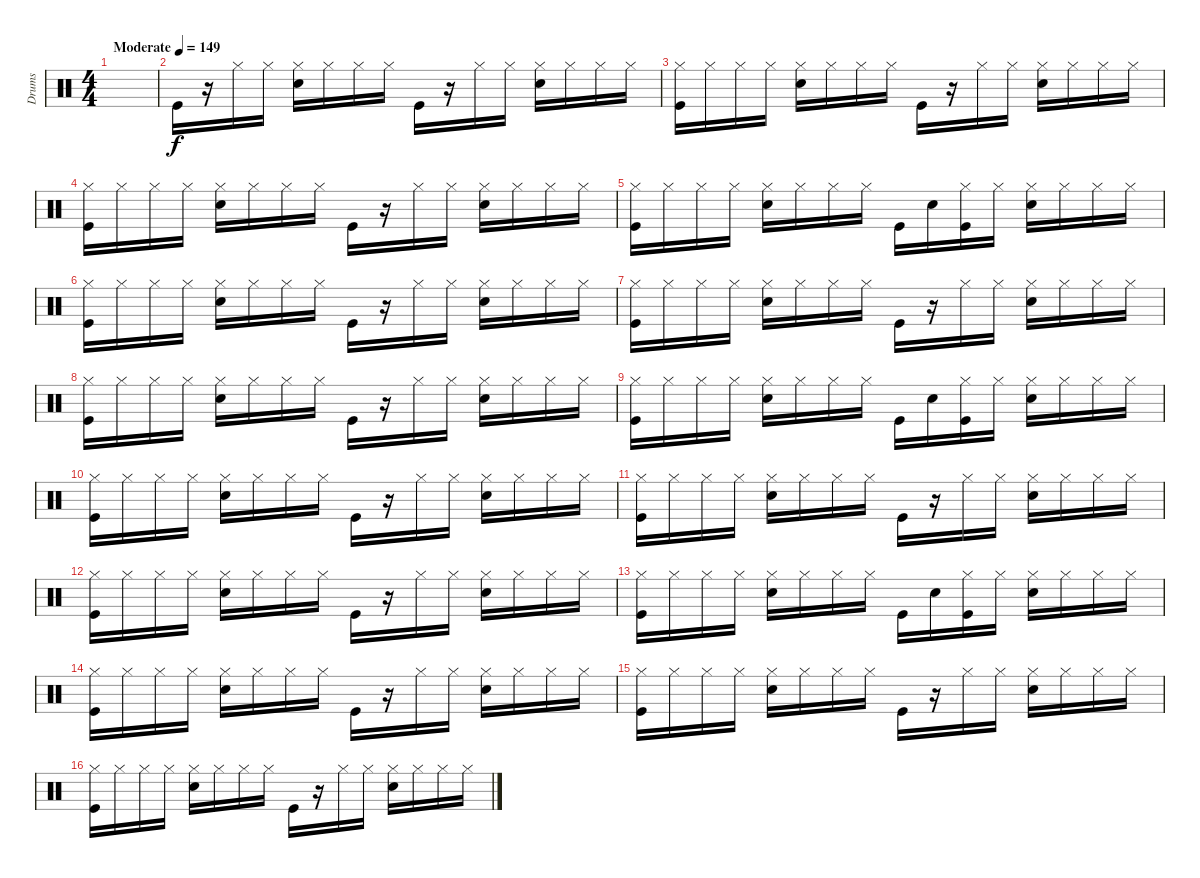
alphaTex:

\track ("Drums" "Drums") {instrument percussion}
\staff {score}
\articulation defaults
\ts (4 4)
\tempo (149 "Moderate")
\clef neutral
\ks c
|
"Kick (hit)".16 r.16 "Hi-Hat (closed)".16 "Hi-Hat (closed)".16 ("Hi-Hat (closed)" "Snare (hit) 2").16 "Hi-Hat (closed)".16 "Hi-Hat (closed)".16 "Hi-Hat (closed)".16 "Kick (hit)".16 r.16 "Hi-Hat (closed)".16 "Hi-Hat (closed)".16 ("Hi-Hat (closed)" "Snare (hit) 2").16 "Hi-Hat (closed)".16 "Hi-Hat (closed)".16 "Hi-Hat (closed)".16 |
("Hi-Hat (closed)" "Kick (hit)").16 "Hi-Hat (closed)".16 "Hi-Hat (closed)".16 "Hi-Hat (closed)".16 ("Hi-Hat (closed)" "Snare (hit) 2").16 "Hi-Hat (closed)".16 "Hi-Hat (closed)".16 "Hi-Hat (closed)".16 "Kick (hit)".16 r.16 "Hi-Hat (closed)".16 "Hi-Hat (closed)".16 ("Hi-Hat (closed)" "Snare (hit) 2").16 "Hi-Hat (closed)".16 "Hi-Hat (closed)".16 "Hi-Hat (closed)".16 |
("Hi-Hat (closed)" "Kick (hit)").16 "Hi-Hat (closed)".16 "Hi-Hat (closed)".16 "Hi-Hat (closed)".16 ("Hi-Hat (closed)" "Snare (hit) 2").16 "Hi-Hat (closed)".16 "Hi-Hat (closed)".16 "Hi-Hat (closed)".16 "Kick (hit)".16 r.16 "Hi-Hat (closed)".16 "Hi-Hat (closed)".16 ("Hi-Hat (closed)" "Snare (hit) 2").16 "Hi-Hat (closed)".16 "Hi-Hat (closed)".16 "Hi-Hat (closed)".16 |
("Hi-Hat (closed)" "Kick (hit)").16 "Hi-Hat (closed)".16 "Hi-Hat (closed)".16 "Hi-Hat (closed)".16 ("Hi-Hat (closed)" "Snare (hit) 2").16 "Hi-Hat (closed)".16 "Hi-Hat (closed)".16 "Hi-Hat (closed)".16 "Kick (hit)".16 "Snare (hit) 2".16 ("Hi-Hat (closed)" "Kick (hit)").16 "Hi-Hat (closed)".16 ("Hi-Hat (closed)" "Snare (hit) 2").16 "Hi-Hat (closed)".16 "Hi-Hat (closed)".16 "Hi-Hat (closed)".16 |
("Hi-Hat (closed)" "Kick (hit)").16 "Hi-Hat (closed)".16 "Hi-Hat (closed)".16 "Hi-Hat (closed)".16 ("Hi-Hat (closed)" "Snare (hit) 2").16 "Hi-Hat (closed)".16 "Hi-Hat (closed)".16 "Hi-Hat (closed)".16 "Kick (hit)".16 r.16 "Hi-Hat (closed)".16 "Hi-Hat (closed)".16 ("Hi-Hat (closed)" "Snare (hit) 2").16 "Hi-Hat (closed)".16 "Hi-Hat (closed)".16 "Hi-Hat (closed)".16 |
("Hi-Hat (closed)" "Kick (hit)").16 "Hi-Hat (closed)".16 "Hi-Hat (closed)".16 "Hi-Hat (closed)".16 ("Hi-Hat (closed)" "Snare (hit) 2").16 "Hi-Hat (closed)".16 "Hi-Hat (closed)".16 "Hi-Hat (closed)".16 "Kick (hit)".16 r.16 "Hi-Hat (closed)".16 "Hi-Hat (closed)".16 ("Hi-Hat (closed)" "Snare (hit) 2").16 "Hi-Hat (closed)".16 "Hi-Hat (closed)".16 "Hi-Hat (closed)".16 |
("Hi-Hat (closed)" "Kick (hit)").16 "Hi-Hat (closed)".16 "Hi-Hat (closed)".16 "Hi-Hat (closed)".16 ("Hi-Hat (closed)" "Snare (hit) 2").16 "Hi-Hat (closed)".16 "Hi-Hat (closed)".16 "Hi-Hat (closed)".16 "Kick (hit)".16 r.16 "Hi-Hat (closed)".16 "Hi-Hat (closed)".16 ("Hi-Hat (closed)" "Snare (hit) 2").16 "Hi-Hat (closed)".16 "Hi-Hat (closed)".16 "Hi-Hat (closed)".16 |
("Hi-Hat (closed)" "Kick (hit)").16 "Hi-Hat (closed)".16 "Hi-Hat (closed)".16 "Hi-Hat (closed)".16 ("Hi-Hat (closed)" "Snare (hit) 2").16 "Hi-Hat (closed)".16 "Hi-Hat (closed)".16 "Hi-Hat (closed)".16 "Kick (hit)".16 "Snare (hit) 2".16 ("Hi-Hat (closed)" "Kick (hit)").16 "Hi-Hat (closed)".16 ("Hi-Hat (closed)" "Snare (hit) 2").16 "Hi-Hat (closed)".16 "Hi-Hat (closed)".16 "Hi-Hat (closed)".16 |
("Hi-Hat (closed)" "Kick (hit)").16 "Hi-Hat (closed)".16 "Hi-Hat (closed)".16 "Hi-Hat (closed)".16 ("Hi-Hat (closed)" "Snare (hit) 2").16 "Hi-Hat (closed)".16 "Hi-Hat (closed)".16 "Hi-Hat (closed)".16 "Kick (hit)".16 r.16 "Hi-Hat (closed)".16 "Hi-Hat (closed)".16 ("Hi-Hat (closed)" "Snare (hit) 2").16 "Hi-Hat (closed)".16 "Hi-Hat (closed)".16 "Hi-Hat (closed)".16 |
("Hi-Hat (closed)" "Kick (hit)").16 "Hi-Hat (closed)".16 "Hi-Hat (closed)".16 "Hi-Hat (closed)".16 ("Hi-Hat (closed)" "Snare (hit) 2").16 "Hi-Hat (closed)".16 "Hi-Hat (closed)".16 "Hi-Hat (closed)".16 "Kick (hit)".16 r.16 "Hi-Hat (closed)".16 "Hi-Hat (closed)".16 ("Hi-Hat (closed)" "Snare (hit) 2").16 "Hi-Hat (closed)".16 "Hi-Hat (closed)".16 "Hi-Hat (closed)".16 |
("Hi-Hat (closed)" "Kick (hit)").16 "Hi-Hat (closed)".16 "Hi-Hat (closed)".16 "Hi-Hat (closed)".16 ("Hi-Hat (closed)" "Snare (hit) 2").16 "Hi-Hat (closed)".16 "Hi-Hat (closed)".16 "Hi-Hat (closed)".16 "Kick (hit)".16 r.16 "Hi-Hat (closed)".16 "Hi-Hat (closed)".16 ("Hi-Hat (closed)" "Snare (hit) 2").16 "Hi-Hat (closed)".16 "Hi-Hat (closed)".16 "Hi-Hat (closed)".16 |
("Hi-Hat (closed)" "Kick (hit)").16 "Hi-Hat (closed)".16 "Hi-Hat (closed)".16 "Hi-Hat (closed)".16 ("Hi-Hat (closed)" "Snare (hit) 2").16 "Hi-Hat (closed)".16 "Hi-Hat (closed)".16 "Hi-Hat (closed)".16 "Kick (hit)".16 "Snare (hit) 2".16 ("Hi-Hat (closed)" "Kick (hit)").16 "Hi-Hat (closed)".16 ("Hi-Hat (closed)" "Snare (hit) 2").16 "Hi-Hat (closed)".16 "Hi-Hat (closed)".16 "Hi-Hat (closed)".16 |
("Hi-Hat (closed)" "Kick (hit)").16 "Hi-Hat (closed)".16 "Hi-Hat (closed)".16 "Hi-Hat (closed)".16 ("Hi-Hat (closed)" "Snare (hit) 2").16 "Hi-Hat (closed)".16 "Hi-Hat (closed)".16 "Hi-Hat (closed)".16 "Kick (hit)".16 r.16 "Hi-Hat (closed)".16 "Hi-Hat (closed)".16 ("Hi-Hat (closed)" "Snare (hit) 2").16 "Hi-Hat (closed)".16 "Hi-Hat (closed)".16 "Hi-Hat (closed)".16 |
("Hi-Hat (closed)" "Kick (hit)").16 "Hi-Hat (closed)".16 "Hi-Hat (closed)".16 "Hi-Hat (closed)".16 ("Hi-Hat (closed)" "Snare (hit) 2").16 "Hi-Hat (closed)".16 "Hi-Hat (closed)".16 "Hi-Hat (closed)".16 "Kick (hit)".16 r.16 "Hi-Hat (closed)".16 "Hi-Hat (closed)".16 ("Hi-Hat (closed)" "Snare (hit) 2").16 "Hi-Hat (closed)".16 "Hi-Hat (closed)".16 "Hi-Hat (closed)".16 |
("Hi-Hat (closed)" "Kick (hit)").16 "Hi-Hat (closed)".16 "Hi-Hat (closed)".16 "Hi-Hat (closed)".16 ("Hi-Hat (closed)" "Snare (hit) 2").16 "Hi-Hat (closed)".16 "Hi-Hat (closed)".16 "Hi-Hat (closed)".16 "Kick (hit)".16 r.16 "Hi-Hat (closed)".16 "Hi-Hat (closed)".16 ("Hi-Hat (closed)" "Snare (hit) 2").16 "Hi-Hat (closed)".16 "Hi-Hat (closed)".16 "Hi-Hat (closed)".16
